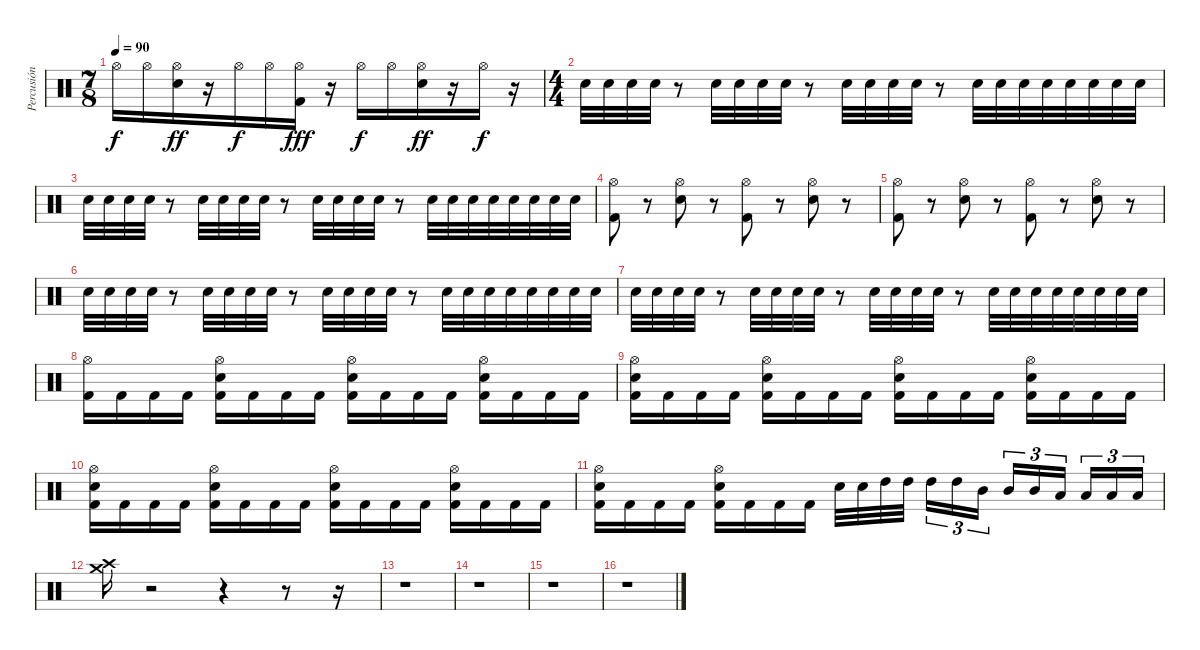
\track ("Percusión" "Percusión") {instrument percussion}
\staff {score}
\articulation defaults
\ts (7 8)
\tempo 90
\clef neutral
\ks c "Hi-Hat (open)".16{dy f} "Hi-Hat (open)".16
("Hi-Hat (open)" "Electric Snare (hit)").16{dy ff} r.16 "Hi-Hat (open)".16{dy f} "Hi-Hat (open)".16 ("Hi-Hat (open)" "Kick (hit) 2").16{dy fff} r.16 "Hi-Hat (open)".16{dy f} "Hi-Hat (open)".16 ("Hi-Hat (open)" "Electric Snare (hit)").16{dy ff} r.16 "Hi-Hat (open)".16{dy f} r.16 |
\ts (4 4)
"Electric Snare (hit)".32 "Electric Snare (hit)".32 "Electric Snare (hit)".32 "Electric Snare (hit)".32 r.8 "Electric Snare (hit)".32 "Electric Snare (hit)".32 "Electric Snare (hit)".32 "Electric Snare (hit)".32 r.8 "Electric Snare (hit)".32 "Electric Snare (hit)".32 "Electric Snare (hit)".32 "Electric Snare (hit)".32 r.8 "Electric Snare (hit)".32 "Electric Snare (hit)".32 "Electric Snare (hit)".32 "Electric Snare (hit)".32 "Electric Snare (hit)".32 "Electric Snare (hit)".32 "Electric Snare (hit)".32 "Electric Snare (hit)".32 |
"Electric Snare (hit)".32 "Electric Snare (hit)".32 "Electric Snare (hit)".32 "Electric Snare (hit)".32 r.8 "Electric Snare (hit)".32 "Electric Snare (hit)".32 "Electric Snare (hit)".32 "Electric Snare (hit)".32 r.8 "Electric Snare (hit)".32 "Electric Snare (hit)".32 "Electric Snare (hit)".32 "Electric Snare (hit)".32 r.8 "Electric Snare (hit)".32 "Electric Snare (hit)".32 "Electric Snare (hit)".32 "Electric Snare (hit)".32 "Electric Snare (hit)".32 "Electric Snare (hit)".32 "Electric Snare (hit)".32 "Electric Snare (hit)".32 |
("Hi-Hat (open)" "Kick (hit) 2").8 r.8 ("Hi-Hat (open)" "Electric Snare (hit)").8 r.8 ("Hi-Hat (open)" "Kick (hit) 2").8 r.8 ("Hi-Hat (open)" "Electric Snare (hit)").8 r.8 |
("Hi-Hat (open)" "Kick (hit) 2").8 r.8 ("Hi-Hat (open)" "Electric Snare (hit)").8 r.8 ("Hi-Hat (open)" "Kick (hit) 2").8 r.8 ("Hi-Hat (open)" "Electric Snare (hit)").8 r.8 |
"Electric Snare (hit)".32 "Electric Snare (hit)".32 "Electric Snare (hit)".32 "Electric Snare (hit)".32 r.8 "Electric Snare (hit)".32 "Electric Snare (hit)".32 "Electric Snare (hit)".32 "Electric Snare (hit)".32 r.8 "Electric Snare (hit)".32 "Electric Snare (hit)".32 "Electric Snare (hit)".32 "Electric Snare (hit)".32 r.8 "Electric Snare (hit)".32 "Electric Snare (hit)".32 "Electric Snare (hit)".32 "Electric Snare (hit)".32 "Electric Snare (hit)".32 "Electric Snare (hit)".32 "Electric Snare (hit)".32 "Electric Snare (hit)".32 |
"Electric Snare (hit)".32 "Electric Snare (hit)".32 "Electric Snare (hit)".32 "Electric Snare (hit)".32 r.8 "Electric Snare (hit)".32 "Electric Snare (hit)".32 "Electric Snare (hit)".32 "Electric Snare (hit)".32 r.8 "Electric Snare (hit)".32 "Electric Snare (hit)".32 "Electric Snare (hit)".32 "Electric Snare (hit)".32 r.8 "Electric Snare (hit)".32 "Electric Snare (hit)".32 "Electric Snare (hit)".32 "Electric Snare (hit)".32 "Electric Snare (hit)".32 "Electric Snare (hit)".32 "Electric Snare (hit)".32 "Electric Snare (hit)".32 |
("Hi-Hat (open)" "Kick (hit) 2").16 "Kick (hit) 2".16 "Kick (hit) 2".16 "Kick (hit) 2".16 ("Hi-Hat (open)" "Electric Snare (hit)" "Kick (hit) 2").16 "Kick (hit) 2".16 "Kick (hit) 2".16 "Kick (hit) 2".16 ("Hi-Hat (open)" "Electric Snare (hit)" "Kick (hit) 2").16 "Kick (hit) 2".16 "Kick (hit) 2".16 "Kick (hit) 2".16 ("Hi-Hat (open)" "Electric Snare (hit)" "Kick (hit) 2").16 "Kick (hit) 2".16 "Kick (hit) 2".16 "Kick (hit) 2".16 |
("Hi-Hat (open)" "Electric Snare (hit)" "Kick (hit) 2").16 "Kick (hit) 2".16 "Kick (hit) 2".16 "Kick (hit) 2".16 ("Hi-Hat (open)" "Electric Snare (hit)" "Kick (hit) 2").16 "Kick (hit) 2".16 "Kick (hit) 2".16 "Kick (hit) 2".16 ("Hi-Hat (open)" "Electric Snare (hit)" "Kick (hit) 2").16 "Kick (hit) 2".16 "Kick (hit) 2".16 "Kick (hit) 2".16 ("Hi-Hat (open)" "Electric Snare (hit)" "Kick (hit) 2").16 "Kick (hit) 2".16 "Kick (hit) 2".16 "Kick (hit) 2".16 |
("Hi-Hat (open)" "Electric Snare (hit)" "Kick (hit) 2").16 "Kick (hit) 2".16 "Kick (hit) 2".16 "Kick (hit) 2".16 ("Hi-Hat (open)" "Electric Snare (hit)" "Kick (hit) 2").16 "Kick (hit) 2".16 "Kick (hit) 2".16 "Kick (hit) 2".16 ("Hi-Hat (open)" "Electric Snare (hit)" "Kick (hit) 2").16 "Kick (hit) 2".16 "Kick (hit) 2".16 "Kick (hit) 2".16 ("Hi-Hat (open)" "Electric Snare (hit)" "Kick (hit) 2").16 "Kick (hit) 2".16 "Kick (hit) 2".16 "Kick (hit) 2".16 |
("Hi-Hat (open)" "Electric Snare (hit)" "Kick (hit) 2").16 "Kick (hit) 2".16 "Kick (hit) 2".16 "Kick (hit) 2".16 ("Hi-Hat (open)" "Electric Snare (hit)" "Kick (hit) 2").16 "Kick (hit) 2".16 "Kick (hit) 2".16 "Kick (hit) 2".16 "Electric Snare (hit)".32 "Electric Snare (hit)".32 "High Tom (hit)".32 "High Tom (hit)".32{beam splitsecondary} "High Tom (hit)".16{tu (3 2)} "High Tom (hit)".16{tu (3 2)} "Mid Tom (hit)".16{tu (3 2)} "Mid Tom (hit)".16{tu (3 2)} "Mid Tom (hit)".16{tu (3 2)} "Low Tom (hit)".16{tu (3 2) beam splitsecondary} "Low Tom (hit)".16{tu (3 2)} "Low Tom (hit)".16{tu (3 2)} "Low Tom (hit)".16{tu (3 2)} |
("Crash high (hit)" "Crash medium (hit)").16 r.2 r.4 r.8 r.16 |
r.1 |
r.1 |
r.1 |
r.1
